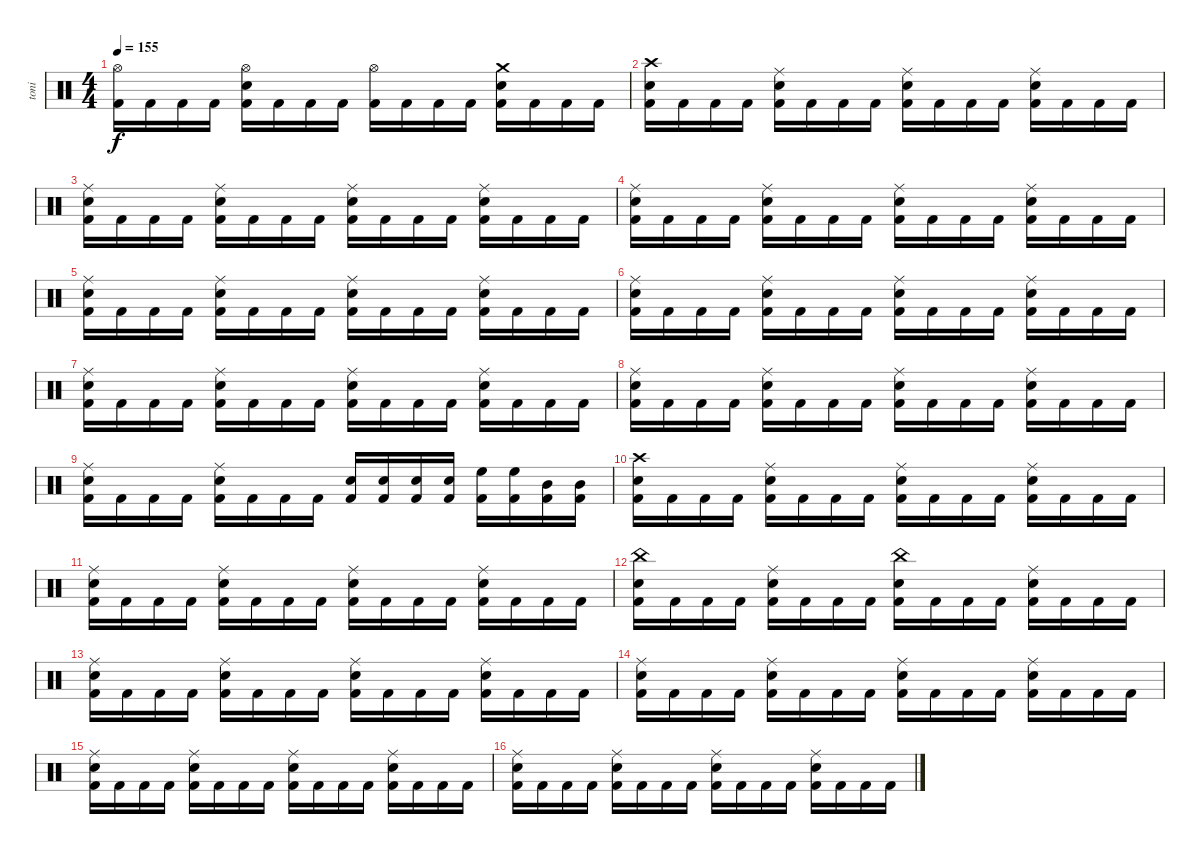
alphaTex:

\track ("toni" "toni") {instrument percussion}
\staff {score}
\articulation defaults
\ts (4 4)
\tempo 155
\clef neutral
\ks c
("Hi-Hat (open)" "Kick (hit) 2").16{dy f} "Kick (hit) 2".16 "Kick (hit) 2".16 "Kick (hit) 2".16 ("Hi-Hat (open)" "Snare (hit) 2" "Kick (hit) 2").16 "Kick (hit) 2".16 "Kick (hit) 2".16 "Kick (hit) 2".16 ("Hi-Hat (open)" "Kick (hit) 2").16 "Kick (hit) 2".16 "Kick (hit) 2".16 "Kick (hit) 2".16 ("Crash medium (hit)" "Snare (hit) 2" "Kick (hit) 2").16 "Kick (hit) 2".16 "Kick (hit) 2".16 "Kick (hit) 2".16 |
("Crash high (hit)" "Snare (hit) 2" "Kick (hit) 2").16 "Kick (hit) 2".16 "Kick (hit) 2".16 "Kick (hit) 2".16 ("Ride (middle)" "Snare (hit) 2" "Kick (hit) 2").16 "Kick (hit) 2".16 "Kick (hit) 2".16 "Kick (hit) 2".16 ("Ride (middle)" "Snare (hit) 2" "Kick (hit) 2").16 "Kick (hit) 2".16 "Kick (hit) 2".16 "Kick (hit) 2".16 ("Ride (middle)" "Snare (hit) 2" "Kick (hit) 2").16 "Kick (hit) 2".16 "Kick (hit) 2".16 "Kick (hit) 2".16 |
("Ride (middle)" "Snare (hit) 2" "Kick (hit) 2").16 "Kick (hit) 2".16 "Kick (hit) 2".16 "Kick (hit) 2".16 ("Ride (middle)" "Snare (hit) 2" "Kick (hit) 2").16 "Kick (hit) 2".16 "Kick (hit) 2".16 "Kick (hit) 2".16 ("Ride (middle)" "Snare (hit) 2" "Kick (hit) 2").16 "Kick (hit) 2".16 "Kick (hit) 2".16 "Kick (hit) 2".16 ("Ride (middle)" "Snare (hit) 2" "Kick (hit) 2").16 "Kick (hit) 2".16 "Kick (hit) 2".16 "Kick (hit) 2".16 |
("Ride (middle)" "Snare (hit) 2" "Kick (hit) 2").16 "Kick (hit) 2".16 "Kick (hit) 2".16 "Kick (hit) 2".16 ("Ride (middle)" "Snare (hit) 2" "Kick (hit) 2").16 "Kick (hit) 2".16 "Kick (hit) 2".16 "Kick (hit) 2".16 ("Ride (middle)" "Snare (hit) 2" "Kick (hit) 2").16 "Kick (hit) 2".16 "Kick (hit) 2".16 "Kick (hit) 2".16 ("Ride (middle)" "Snare (hit) 2" "Kick (hit) 2").16 "Kick (hit) 2".16 "Kick (hit) 2".16 "Kick (hit) 2".16 |
("Ride (middle)" "Snare (hit) 2" "Kick (hit) 2").16 "Kick (hit) 2".16 "Kick (hit) 2".16 "Kick (hit) 2".16 ("Ride (middle)" "Snare (hit) 2" "Kick (hit) 2").16 "Kick (hit) 2".16 "Kick (hit) 2".16 "Kick (hit) 2".16 ("Ride (middle)" "Snare (hit) 2" "Kick (hit) 2").16 "Kick (hit) 2".16 "Kick (hit) 2".16 "Kick (hit) 2".16 ("Ride (middle)" "Snare (hit) 2" "Kick (hit) 2").16 "Kick (hit) 2".16 "Kick (hit) 2".16 "Kick (hit) 2".16 |
("Ride (middle)" "Snare (hit) 2" "Kick (hit) 2").16 "Kick (hit) 2".16 "Kick (hit) 2".16 "Kick (hit) 2".16 ("Ride (middle)" "Snare (hit) 2" "Kick (hit) 2").16 "Kick (hit) 2".16 "Kick (hit) 2".16 "Kick (hit) 2".16 ("Ride (middle)" "Snare (hit) 2" "Kick (hit) 2").16 "Kick (hit) 2".16 "Kick (hit) 2".16 "Kick (hit) 2".16 ("Ride (middle)" "Snare (hit) 2" "Kick (hit) 2").16 "Kick (hit) 2".16 "Kick (hit) 2".16 "Kick (hit) 2".16 |
("Ride (middle)" "Snare (hit) 2" "Kick (hit) 2").16 "Kick (hit) 2".16 "Kick (hit) 2".16 "Kick (hit) 2".16 ("Ride (middle)" "Snare (hit) 2" "Kick (hit) 2").16 "Kick (hit) 2".16 "Kick (hit) 2".16 "Kick (hit) 2".16 ("Ride (middle)" "Snare (hit) 2" "Kick (hit) 2").16 "Kick (hit) 2".16 "Kick (hit) 2".16 "Kick (hit) 2".16 ("Ride (middle)" "Snare (hit) 2" "Kick (hit) 2").16 "Kick (hit) 2".16 "Kick (hit) 2".16 "Kick (hit) 2".16 |
("Ride (middle)" "Snare (hit) 2" "Kick (hit) 2").16 "Kick (hit) 2".16 "Kick (hit) 2".16 "Kick (hit) 2".16 ("Ride (middle)" "Snare (hit) 2" "Kick (hit) 2").16 "Kick (hit) 2".16 "Kick (hit) 2".16 "Kick (hit) 2".16 ("Ride (middle)" "Snare (hit) 2" "Kick (hit) 2").16 "Kick (hit) 2".16 "Kick (hit) 2".16 "Kick (hit) 2".16 ("Ride (middle)" "Snare (hit) 2" "Kick (hit) 2").16 "Kick (hit) 2".16 "Kick (hit) 2".16 "Kick (hit) 2".16 |
("Ride (middle)" "Snare (hit) 2" "Kick (hit) 2").16 "Kick (hit) 2".16 "Kick (hit) 2".16 "Kick (hit) 2".16 ("Ride (middle)" "Snare (hit) 2" "Kick (hit) 2").16 "Kick (hit) 2".16 "Kick (hit) 2".16 "Kick (hit) 2".16 ("Snare (hit) 2" "Kick (hit) 2").16 ("Snare (hit) 2" "Kick (hit) 2").16 ("Snare (hit) 2" "Kick (hit) 2").16 ("Snare (hit) 2" "Kick (hit) 2").16 ("High Floor Tom (hit)" "Kick (hit) 2").16 ("High Floor Tom (hit)" "Kick (hit) 2").16 ("Mid Tom (hit)" "Kick (hit) 2").16 ("Mid Tom (hit)" "Kick (hit) 2").16 |
("Crash high (hit)" "Snare (hit) 2" "Kick (hit) 2").16 "Kick (hit) 2".16 "Kick (hit) 2".16 "Kick (hit) 2".16 ("Ride (middle)" "Snare (hit) 2" "Kick (hit) 2").16 "Kick (hit) 2".16 "Kick (hit) 2".16 "Kick (hit) 2".16 ("Ride (middle)" "Snare (hit) 2" "Kick (hit) 2").16 "Kick (hit) 2".16 "Kick (hit) 2".16 "Kick (hit) 2".16 ("Ride (middle)" "Snare (hit) 2" "Kick (hit) 2").16 "Kick (hit) 2".16 "Kick (hit) 2".16 "Kick (hit) 2".16 |
("Ride (middle)" "Snare (hit) 2" "Kick (hit) 2").16 "Kick (hit) 2".16 "Kick (hit) 2".16 "Kick (hit) 2".16 ("Ride (middle)" "Snare (hit) 2" "Kick (hit) 2").16 "Kick (hit) 2".16 "Kick (hit) 2".16 "Kick (hit) 2".16 ("Ride (middle)" "Snare (hit) 2" "Kick (hit) 2").16 "Kick (hit) 2".16 "Kick (hit) 2".16 "Kick (hit) 2".16 ("Ride (middle)" "Snare (hit) 2" "Kick (hit) 2").16 "Kick (hit) 2".16 "Kick (hit) 2".16 "Kick (hit) 2".16 |
("China (hit)" "Snare (hit) 2" "Kick (hit) 2").16 "Kick (hit) 2".16 "Kick (hit) 2".16 "Kick (hit) 2".16 ("Ride (middle)" "Snare (hit) 2" "Kick (hit) 2").16 "Kick (hit) 2".16 "Kick (hit) 2".16 "Kick (hit) 2".16 ("China (hit)" "Snare (hit) 2" "Kick (hit) 2").16 "Kick (hit) 2".16 "Kick (hit) 2".16 "Kick (hit) 2".16 ("Ride (middle)" "Snare (hit) 2" "Kick (hit) 2").16 "Kick (hit) 2".16 "Kick (hit) 2".16 "Kick (hit) 2".16 |
("Ride (middle)" "Snare (hit) 2" "Kick (hit) 2").16 "Kick (hit) 2".16 "Kick (hit) 2".16 "Kick (hit) 2".16 ("Ride (middle)" "Snare (hit) 2" "Kick (hit) 2").16 "Kick (hit) 2".16 "Kick (hit) 2".16 "Kick (hit) 2".16 ("Ride (middle)" "Snare (hit) 2" "Kick (hit) 2").16 "Kick (hit) 2".16 "Kick (hit) 2".16 "Kick (hit) 2".16 ("Ride (middle)" "Snare (hit) 2" "Kick (hit) 2").16 "Kick (hit) 2".16 "Kick (hit) 2".16 "Kick (hit) 2".16 |
("Ride (middle)" "Snare (hit) 2" "Kick (hit) 2").16 "Kick (hit) 2".16 "Kick (hit) 2".16 "Kick (hit) 2".16 ("Ride (middle)" "Snare (hit) 2" "Kick (hit) 2").16 "Kick (hit) 2".16 "Kick (hit) 2".16 "Kick (hit) 2".16 ("Ride (middle)" "Snare (hit) 2" "Kick (hit) 2").16 "Kick (hit) 2".16 "Kick (hit) 2".16 "Kick (hit) 2".16 ("Ride (middle)" "Snare (hit) 2" "Kick (hit) 2").16 "Kick (hit) 2".16 "Kick (hit) 2".16 "Kick (hit) 2".16 |
("Ride (middle)" "Snare (hit) 2" "Kick (hit) 2").16 "Kick (hit) 2".16 "Kick (hit) 2".16 "Kick (hit) 2".16 ("Ride (middle)" "Snare (hit) 2" "Kick (hit) 2").16 "Kick (hit) 2".16 "Kick (hit) 2".16 "Kick (hit) 2".16 ("Ride (middle)" "Snare (hit) 2" "Kick (hit) 2").16 "Kick (hit) 2".16 "Kick (hit) 2".16 "Kick (hit) 2".16 ("Ride (middle)" "Snare (hit) 2" "Kick (hit) 2").16 "Kick (hit) 2".16 "Kick (hit) 2".16 "Kick (hit) 2".16 |
("Ride (middle)" "Snare (hit) 2" "Kick (hit) 2").16 "Kick (hit) 2".16 "Kick (hit) 2".16 "Kick (hit) 2".16 ("Ride (middle)" "Snare (hit) 2" "Kick (hit) 2").16 "Kick (hit) 2".16 "Kick (hit) 2".16 "Kick (hit) 2".16 ("Ride (middle)" "Snare (hit) 2" "Kick (hit) 2").16 "Kick (hit) 2".16 "Kick (hit) 2".16 "Kick (hit) 2".16 ("Ride (middle)" "Snare (hit) 2" "Kick (hit) 2").16 "Kick (hit) 2".16 "Kick (hit) 2".16 "Kick (hit) 2".16
